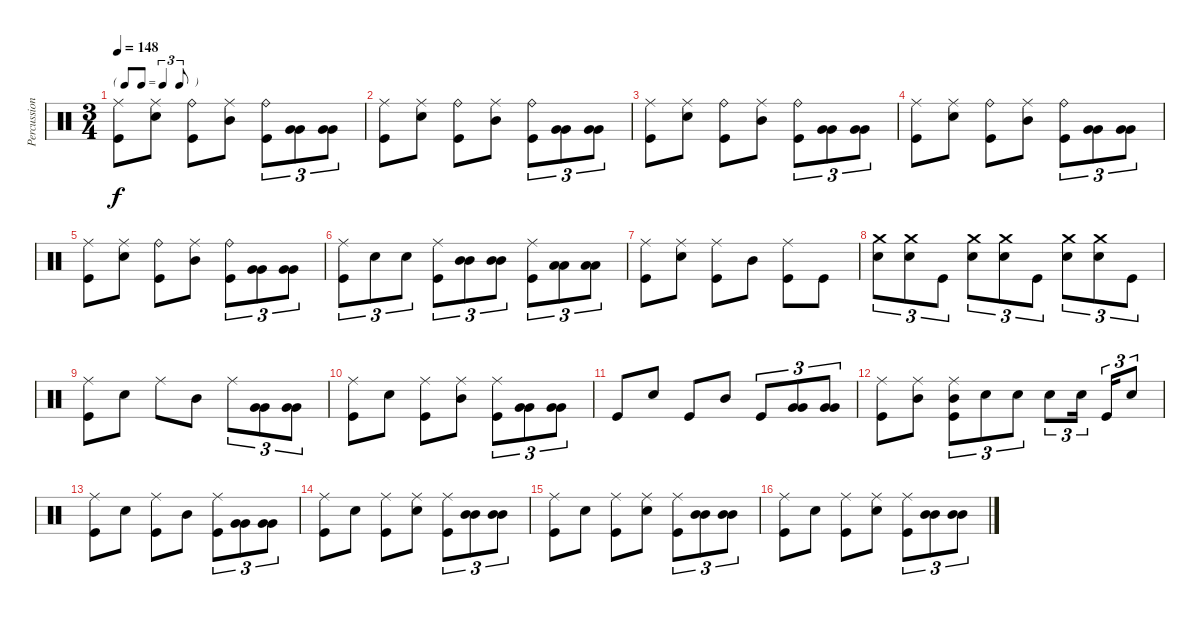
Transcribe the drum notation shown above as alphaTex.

\track ("Percussions" "Percussion") {instrument percussion}
\staff {score}
\articulation defaults
\ts (3 4)
\tf triplet8th
\tempo 148
\clef neutral
\ks c
("Ride (middle)" "Kick (hit)").8{dy f} ("Ride (middle)" "Electric Snare (hit)").8 ("Ride (bell)" "Kick (hit)").8 ("Ride (middle)" "Mid Tom (hit)").8 ("Ride (bell)" "Kick (hit)").8{tu (3 2)} ("Very Low Tom (hit)" "Very Low Tom (hit)").8{tu (3 2)} ("Very Low Tom (hit)" "Very Low Tom (hit)").8{tu (3 2)} |
("Ride (middle)" "Kick (hit)").8 ("Ride (middle)" "Electric Snare (hit)").8 ("Ride (bell)" "Kick (hit)").8 ("Ride (middle)" "Mid Tom (hit)").8 ("Ride (bell)" "Kick (hit)").8{tu (3 2)} ("Very Low Tom (hit)" "Very Low Tom (hit)").8{tu (3 2)} ("Very Low Tom (hit)" "Very Low Tom (hit)").8{tu (3 2)} |
("Ride (middle)" "Kick (hit)").8 ("Ride (middle)" "Electric Snare (hit)").8 ("Ride (bell)" "Kick (hit)").8 ("Ride (middle)" "Mid Tom (hit)").8 ("Ride (bell)" "Kick (hit)").8{tu (3 2)} ("Very Low Tom (hit)" "Very Low Tom (hit)").8{tu (3 2)} ("Very Low Tom (hit)" "Very Low Tom (hit)").8{tu (3 2)} |
("Ride (middle)" "Kick (hit)").8 ("Ride (middle)" "Electric Snare (hit)").8 ("Ride (bell)" "Kick (hit)").8 ("Ride (middle)" "Mid Tom (hit)").8 ("Ride (bell)" "Kick (hit)").8{tu (3 2)} ("Very Low Tom (hit)" "Very Low Tom (hit)").8{tu (3 2)} ("Very Low Tom (hit)" "Very Low Tom (hit)").8{tu (3 2)} |
("Ride (middle)" "Kick (hit)").8 ("Ride (middle)" "Electric Snare (hit)").8 ("Ride (bell)" "Kick (hit)").8 ("Ride (middle)" "Mid Tom (hit)").8 ("Ride (bell)" "Kick (hit)").8{tu (3 2)} ("Very Low Tom (hit)" "Very Low Tom (hit)").8{tu (3 2)} ("Very Low Tom (hit)" "Very Low Tom (hit)").8{tu (3 2)} |
("Ride (middle)" "Kick (hit)").8{tu (3 2)} "Electric Snare (hit)".8{tu (3 2)} "Electric Snare (hit)".8{tu (3 2)} ("Ride (middle)" "Kick (hit)").8{tu (3 2)} ("Mid Tom (hit)" "Mid Tom (hit)").8{tu (3 2)} ("Mid Tom (hit)" "Mid Tom (hit)").8{tu (3 2)} ("Ride (middle)" "Kick (hit)").8{tu (3 2)} ("Low Tom (hit)" "Low Tom (hit)").8{tu (3 2)} ("Low Tom (hit)" "Low Tom (hit)").8{tu (3 2)} |
("Ride (middle)" "Kick (hit)").8 ("Ride (middle)" "Electric Snare (hit)").8 ("Ride (middle)" "Kick (hit)").8 "Mid Tom (hit)".8 ("Ride (middle)" "Kick (hit)").8 "Kick (hit)".8 |
("Crash medium (hit)" "Electric Snare (hit)").8{tu (3 2)} ("Crash medium (hit)" "Electric Snare (hit)").8{tu (3 2)} "Kick (hit)".8{tu (3 2)} ("Crash medium (hit)" "Electric Snare (hit)").8{tu (3 2)} ("Crash medium (hit)" "Electric Snare (hit)").8{tu (3 2)} "Kick (hit)".8{tu (3 2)} ("Crash medium (hit)" "Electric Snare (hit)").8{tu (3 2)} ("Crash medium (hit)" "Electric Snare (hit)").8{tu (3 2)} "Kick (hit)".8{tu (3 2)} |
("Ride (middle)" "Kick (hit)").8 "Electric Snare (hit)".8 "Ride (middle)".8 "Mid Tom (hit)".8 "Ride (middle)".8{tu (3 2)} ("Very Low Tom (hit)" "Very Low Tom (hit)").8{tu (3 2)} ("Very Low Tom (hit)" "Very Low Tom (hit)").8{tu (3 2)} |
("Ride (middle)" "Kick (hit)").8 "Electric Snare (hit)".8 ("Ride (middle)" "Kick (hit)").8 ("Ride (middle)" "Mid Tom (hit)").8 ("Ride (middle)" "Kick (hit)").8{tu (3 2)} ("Very Low Tom (hit)" "Very Low Tom (hit)").8{tu (3 2)} ("Very Low Tom (hit)" "Very Low Tom (hit)").8{tu (3 2)} |
"Kick (hit)".8 "Electric Snare (hit)".8 "Kick (hit)".8 "Mid Tom (hit)".8 "Kick (hit)".8{tu (3 2)} ("Very Low Tom (hit)" "Very Low Tom (hit)").8{tu (3 2)} ("Very Low Tom (hit)" "Very Low Tom (hit)").8{tu (3 2)} |
("Ride (middle)" "Kick (hit)").8 ("Ride (middle)" "Mid Tom (hit)").8 ("Ride (middle)" "Mid Tom (hit)" "Kick (hit)").8{tu (3 2)} "Electric Snare (hit)".8{tu (3 2)} "Electric Snare (hit)".8{tu (3 2)} "Electric Snare (hit)".8{tu (3 2)} "Electric Snare (hit)".16{tu (3 2)} "Kick (hit)".16{tu (3 2)} "Electric Snare (hit)".8{tu (3 2)} |
("Ride (middle)" "Kick (hit)").8 "Electric Snare (hit)".8 ("Ride (middle)" "Kick (hit)").8 "Mid Tom (hit)".8 ("Ride (middle)" "Kick (hit)").8{tu (3 2)} ("Very Low Tom (hit)" "Very Low Tom (hit)").8{tu (3 2)} ("Very Low Tom (hit)" "Very Low Tom (hit)").8{tu (3 2)} |
("Ride (middle)" "Kick (hit)").8 "Electric Snare (hit)".8 ("Ride (middle)" "Kick (hit)").8 ("Ride (middle)" "Electric Snare (hit)").8 ("Ride (middle)" "Kick (hit)").8{tu (3 2)} ("Mid Tom (hit)" "Mid Tom (hit)").8{tu (3 2)} ("Mid Tom (hit)" "Mid Tom (hit)").8{tu (3 2)} |
("Ride (middle)" "Kick (hit)").8 "Electric Snare (hit)".8 ("Ride (middle)" "Kick (hit)").8 ("Ride (middle)" "Electric Snare (hit)").8 ("Ride (middle)" "Kick (hit)").8{tu (3 2)} ("Mid Tom (hit)" "Mid Tom (hit)").8{tu (3 2)} ("Mid Tom (hit)" "Mid Tom (hit)").8{tu (3 2)} |
("Ride (middle)" "Kick (hit)").8 "Electric Snare (hit)".8 ("Ride (middle)" "Kick (hit)").8 ("Ride (middle)" "Electric Snare (hit)").8 ("Ride (middle)" "Kick (hit)").8{tu (3 2)} ("Mid Tom (hit)" "Mid Tom (hit)").8{tu (3 2)} ("Mid Tom (hit)" "Mid Tom (hit)").8{tu (3 2)}
